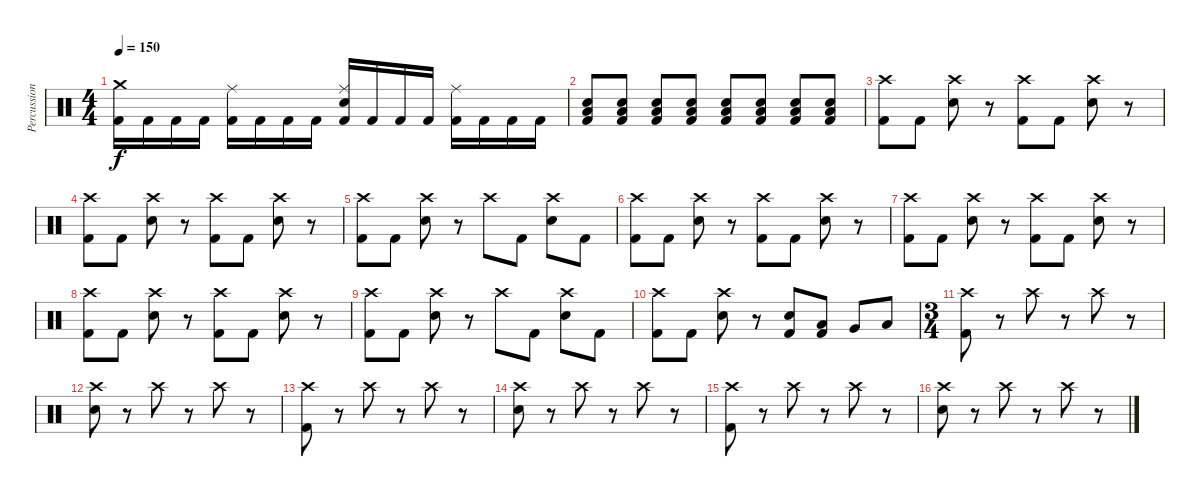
\track ("Percussion" "Percussion") {instrument percussion}
\staff {score}
\articulation defaults
\ts (4 4)
\tempo 150
\clef neutral
\ks c
("Crash medium (hit)" "Kick (hit) 2").16{dy f} "Kick (hit) 2".16 "Kick (hit) 2".16 "Kick (hit) 2".16 ("Ride (middle)" "Kick (hit) 2").16 "Kick (hit) 2".16 "Kick (hit) 2".16 "Kick (hit) 2".16 ("Ride (middle)" "Electric Snare (hit)" "Kick (hit) 2").16 "Kick (hit) 2".16 "Kick (hit) 2".16 "Kick (hit) 2".16 ("Ride (middle)" "Kick (hit) 2").16 "Kick (hit) 2".16 "Kick (hit) 2".16 "Kick (hit) 2".16 |
("Low Floor Tom (hit)" "Kick (hit) 2" "Electric Snare (hit)").8 ("Low Floor Tom (hit)" "Kick (hit) 2" "Electric Snare (hit)").8 ("Low Floor Tom (hit)" "Kick (hit) 2" "Electric Snare (hit)").8 ("Low Floor Tom (hit)" "Kick (hit) 2" "Electric Snare (hit)").8 ("Low Floor Tom (hit)" "Kick (hit) 2" "Electric Snare (hit)").8 ("Low Floor Tom (hit)" "Kick (hit) 2" "Electric Snare (hit)").8 ("Low Floor Tom (hit)" "Kick (hit) 2" "Electric Snare (hit)").8 ("Low Floor Tom (hit)" "Kick (hit) 2" "Electric Snare (hit)").8 |
("Crash high (hit)" "Kick (hit) 2").8 "Kick (hit) 2".8 ("Crash high (hit)" "Electric Snare (hit)").8 r.8 ("Crash high (hit)" "Kick (hit) 2").8 "Kick (hit) 2".8 ("Crash high (hit)" "Electric Snare (hit)").8 r.8 |
("Crash high (hit)" "Kick (hit) 2").8 "Kick (hit) 2".8 ("Crash high (hit)" "Electric Snare (hit)").8 r.8 ("Crash high (hit)" "Kick (hit) 2").8 "Kick (hit) 2".8 ("Crash high (hit)" "Electric Snare (hit)").8 r.8 |
("Crash high (hit)" "Kick (hit) 2").8 "Kick (hit) 2".8 ("Crash high (hit)" "Electric Snare (hit)").8 r.8 "Crash high (hit)".8 "Kick (hit) 2".8 ("Crash high (hit)" "Electric Snare (hit)").8 "Kick (hit) 2".8 |
("Crash high (hit)" "Kick (hit) 2").8 "Kick (hit) 2".8 ("Crash high (hit)" "Electric Snare (hit)").8 r.8 ("Crash high (hit)" "Kick (hit) 2").8 "Kick (hit) 2".8 ("Crash high (hit)" "Electric Snare (hit)").8 r.8 |
("Crash high (hit)" "Kick (hit) 2").8 "Kick (hit) 2".8 ("Crash high (hit)" "Electric Snare (hit)").8 r.8 ("Crash high (hit)" "Kick (hit) 2").8 "Kick (hit) 2".8 ("Crash high (hit)" "Electric Snare (hit)").8 r.8 |
("Crash high (hit)" "Kick (hit) 2").8 "Kick (hit) 2".8 ("Crash high (hit)" "Electric Snare (hit)").8 r.8 ("Crash high (hit)" "Kick (hit) 2").8 "Kick (hit) 2".8 ("Crash high (hit)" "Electric Snare (hit)").8 r.8 |
("Crash high (hit)" "Kick (hit) 2").8 "Kick (hit) 2".8 ("Crash high (hit)" "Electric Snare (hit)").8 r.8 "Crash high (hit)".8 "Kick (hit) 2".8 ("Crash high (hit)" "Electric Snare (hit)").8 "Kick (hit) 2".8 |
("Crash high (hit)" "Kick (hit) 2").8 "Kick (hit) 2".8 ("Crash high (hit)" "Electric Snare (hit)").8 r.8 ("Electric Snare (hit)" "Kick (hit) 2").8 ("Low Tom (hit)" "Kick (hit) 2").8 "Very Low Tom (hit)".8 "Low Floor Tom (hit)".8 |
\ts (3 4)
("Crash high (hit)" "Kick (hit) 2").8 r.8 "Crash high (hit)".8 r.8 "Crash high (hit)".8 r.8 |
("Crash high (hit)" "Electric Snare (hit)").8 r.8 "Crash high (hit)".8 r.8 "Crash high (hit)".8 r.8 |
("Crash high (hit)" "Kick (hit) 2").8 r.8 "Crash high (hit)".8 r.8 "Crash high (hit)".8 r.8 |
("Crash high (hit)" "Electric Snare (hit)").8 r.8 "Crash high (hit)".8 r.8 "Crash high (hit)".8 r.8 |
("Crash high (hit)" "Kick (hit) 2").8 r.8 "Crash high (hit)".8 r.8 "Crash high (hit)".8 r.8 |
("Crash high (hit)" "Electric Snare (hit)").8 r.8 "Crash high (hit)".8 r.8 "Crash high (hit)".8 r.8
